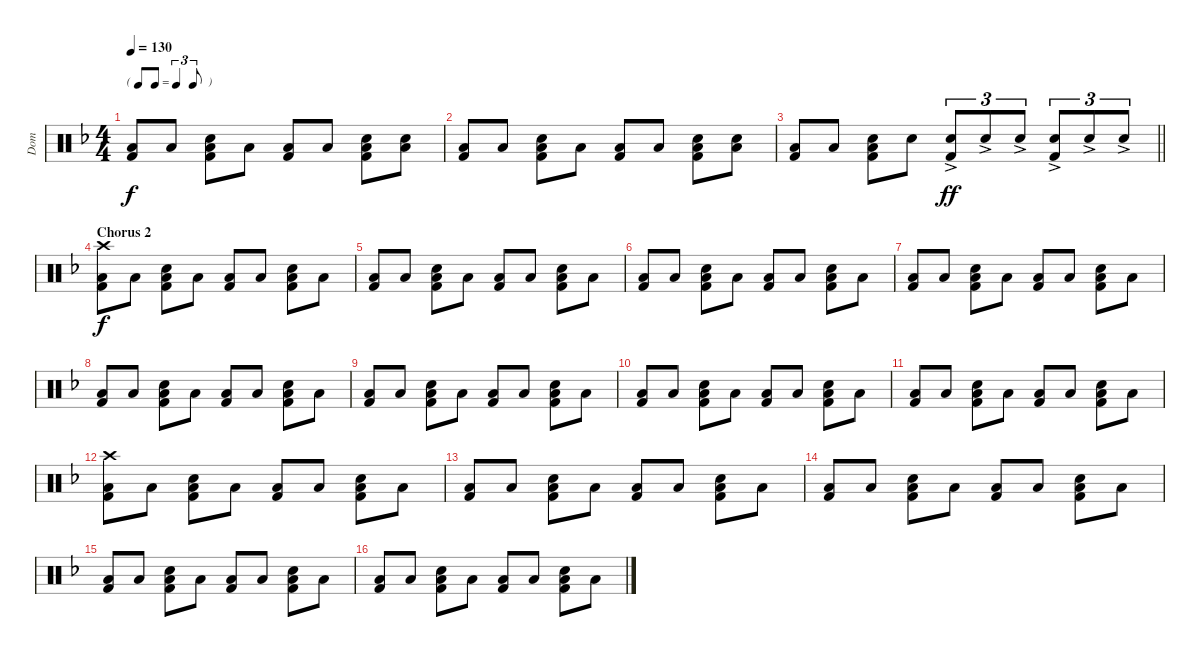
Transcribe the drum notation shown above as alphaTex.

\track ("Dom" "Dom") {instrument percussion}
\staff {score}
\articulation defaults
\ts (4 4)
\tf triplet8th
\tempo 130
\clef neutral
\ks dminor
("Low Tom (hit)" "Kick (hit) 2").8{dy f} "Low Tom (hit)".8 ("Electric Snare (hit)" "Low Tom (hit)" "Kick (hit) 2").8 "Low Tom (hit)".8 ("Low Tom (hit)" "Kick (hit) 2").8 "Low Tom (hit)".8 ("Electric Snare (hit)" "Low Tom (hit)" "Kick (hit) 2").8 ("Electric Snare (hit)" "Low Tom (hit)").8 |
("Low Tom (hit)" "Kick (hit) 2").8 "Low Tom (hit)".8 ("Electric Snare (hit)" "Low Tom (hit)" "Kick (hit) 2").8 "Low Tom (hit)".8 ("Low Tom (hit)" "Kick (hit) 2").8 "Low Tom (hit)".8 ("Electric Snare (hit)" "Low Tom (hit)" "Kick (hit) 2").8 ("Electric Snare (hit)" "Low Tom (hit)").8 |
\barLineRight lightlight
("Low Tom (hit)" "Kick (hit) 2").8 "Low Tom (hit)".8 ("Electric Snare (hit)" "Low Tom (hit)" "Kick (hit) 2").8 "Electric Snare (hit)".8 ("Electric Snare (hit)"{ac} "Kick (hit) 2").8{tu (3 2) dy ff} "Electric Snare (hit)"{ac}.8{tu (3 2)} "Electric Snare (hit)"{ac}.8{tu (3 2)} ("Electric Snare (hit)"{ac} "Kick (hit) 2").8{tu (3 2)} "Electric Snare (hit)"{ac}.8{tu (3 2)} "Electric Snare (hit)"{ac}.8{tu (3 2)} |
\section ("" "Chorus 2")
("Crash high (hit)" "Low Tom (hit)" "Kick (hit) 2").8{dy f} "Low Tom (hit)".8 ("Electric Snare (hit)" "Low Tom (hit)" "Kick (hit) 2").8 "Low Tom (hit)".8 ("Low Tom (hit)" "Kick (hit) 2").8 "Low Tom (hit)".8 ("Electric Snare (hit)" "Low Tom (hit)" "Kick (hit) 2").8 "Low Tom (hit)".8 |
("Low Tom (hit)" "Kick (hit) 2").8 "Low Tom (hit)".8 ("Electric Snare (hit)" "Low Tom (hit)" "Kick (hit) 2").8 "Low Tom (hit)".8 ("Low Tom (hit)" "Kick (hit) 2").8 "Low Tom (hit)".8 ("Electric Snare (hit)" "Low Tom (hit)" "Kick (hit) 2").8 "Low Tom (hit)".8 |
("Low Tom (hit)" "Kick (hit) 2").8 "Low Tom (hit)".8 ("Electric Snare (hit)" "Low Tom (hit)" "Kick (hit) 2").8 "Low Tom (hit)".8 ("Low Tom (hit)" "Kick (hit) 2").8 "Low Tom (hit)".8 ("Electric Snare (hit)" "Low Tom (hit)" "Kick (hit) 2").8 "Low Tom (hit)".8 |
("Low Tom (hit)" "Kick (hit) 2").8 "Low Tom (hit)".8 ("Electric Snare (hit)" "Low Tom (hit)" "Kick (hit) 2").8 "Low Tom (hit)".8 ("Low Tom (hit)" "Kick (hit) 2").8 "Low Tom (hit)".8 ("Electric Snare (hit)" "Low Tom (hit)" "Kick (hit) 2").8 "Low Tom (hit)".8 |
("Low Tom (hit)" "Kick (hit) 2").8 "Low Tom (hit)".8 ("Electric Snare (hit)" "Low Tom (hit)" "Kick (hit) 2").8 "Low Tom (hit)".8 ("Low Tom (hit)" "Kick (hit) 2").8 "Low Tom (hit)".8 ("Electric Snare (hit)" "Low Tom (hit)" "Kick (hit) 2").8 "Low Tom (hit)".8 |
("Low Tom (hit)" "Kick (hit) 2").8 "Low Tom (hit)".8 ("Electric Snare (hit)" "Low Tom (hit)" "Kick (hit) 2").8 "Low Tom (hit)".8 ("Low Tom (hit)" "Kick (hit) 2").8 "Low Tom (hit)".8 ("Electric Snare (hit)" "Low Tom (hit)" "Kick (hit) 2").8 "Low Tom (hit)".8 |
("Low Tom (hit)" "Kick (hit) 2").8 "Low Tom (hit)".8 ("Electric Snare (hit)" "Low Tom (hit)" "Kick (hit) 2").8 "Low Tom (hit)".8 ("Low Tom (hit)" "Kick (hit) 2").8 "Low Tom (hit)".8 ("Electric Snare (hit)" "Low Tom (hit)" "Kick (hit) 2").8 "Low Tom (hit)".8 |
("Low Tom (hit)" "Kick (hit) 2").8 "Low Tom (hit)".8 ("Electric Snare (hit)" "Low Tom (hit)" "Kick (hit) 2").8 "Low Tom (hit)".8 ("Low Tom (hit)" "Kick (hit) 2").8 "Low Tom (hit)".8 ("Electric Snare (hit)" "Low Tom (hit)" "Kick (hit) 2").8 "Low Tom (hit)".8 |
("Crash high (hit)" "Low Tom (hit)" "Kick (hit) 2").8 "Low Tom (hit)".8 ("Electric Snare (hit)" "Low Tom (hit)" "Kick (hit) 2").8 "Low Tom (hit)".8 ("Low Tom (hit)" "Kick (hit) 2").8 "Low Tom (hit)".8 ("Electric Snare (hit)" "Low Tom (hit)" "Kick (hit) 2").8 "Low Tom (hit)".8 |
("Low Tom (hit)" "Kick (hit) 2").8 "Low Tom (hit)".8 ("Electric Snare (hit)" "Low Tom (hit)" "Kick (hit) 2").8 "Low Tom (hit)".8 ("Low Tom (hit)" "Kick (hit) 2").8 "Low Tom (hit)".8 ("Electric Snare (hit)" "Low Tom (hit)" "Kick (hit) 2").8 "Low Tom (hit)".8 |
("Low Tom (hit)" "Kick (hit) 2").8 "Low Tom (hit)".8 ("Electric Snare (hit)" "Low Tom (hit)" "Kick (hit) 2").8 "Low Tom (hit)".8 ("Low Tom (hit)" "Kick (hit) 2").8 "Low Tom (hit)".8 ("Electric Snare (hit)" "Low Tom (hit)" "Kick (hit) 2").8 "Low Tom (hit)".8 |
("Low Tom (hit)" "Kick (hit) 2").8 "Low Tom (hit)".8 ("Electric Snare (hit)" "Low Tom (hit)" "Kick (hit) 2").8 "Low Tom (hit)".8 ("Low Tom (hit)" "Kick (hit) 2").8 "Low Tom (hit)".8 ("Electric Snare (hit)" "Low Tom (hit)" "Kick (hit) 2").8 "Low Tom (hit)".8 |
("Low Tom (hit)" "Kick (hit) 2").8 "Low Tom (hit)".8 ("Electric Snare (hit)" "Low Tom (hit)" "Kick (hit) 2").8 "Low Tom (hit)".8 ("Low Tom (hit)" "Kick (hit) 2").8 "Low Tom (hit)".8 ("Electric Snare (hit)" "Low Tom (hit)" "Kick (hit) 2").8 "Low Tom (hit)".8
